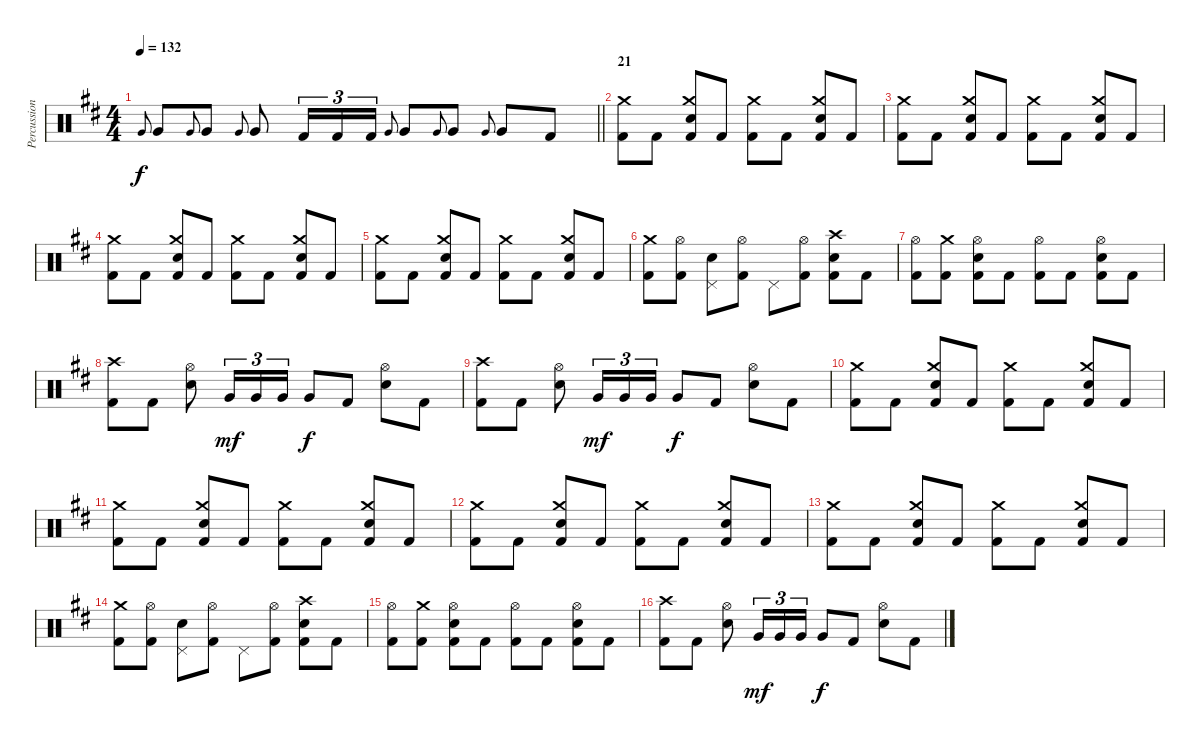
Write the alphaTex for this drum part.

\track ("Percussion" "Percussion") {instrument percussion}
\staff {score}
\articulation defaults
\ts (4 4)
\tempo 132
\clef neutral
\barLineRight lightlight
\ks bminor "Very Low Tom (hit)".8{gr onbeat dy f} "Very Low Tom (hit)".8 "Very Low Tom (hit)".8{gr onbeat} "Very Low Tom (hit)".8 "Very Low Tom (hit)".8{gr onbeat} "Very Low Tom (hit)".8 "Kick (hit) 2".16{tu (3 2)} "Kick (hit) 2".16{tu (3 2)} "Kick (hit) 2".16{tu (3 2)} "Very Low Tom (hit)".8{gr onbeat} "Very Low Tom (hit)".8 "Very Low Tom (hit)".8{gr onbeat} "Very Low Tom (hit)".8 "Very Low Tom (hit)".8{gr onbeat} "Very Low Tom (hit)".8 "Kick (hit) 2".8
|
\section ("" "21")
("Crash medium (hit)" "Kick (hit) 2").8 "Kick (hit) 2".8 ("Crash medium (hit)" "Snare (hit) 2" "Kick (hit) 2").8 "Kick (hit) 2".8 ("Crash medium (hit)" "Kick (hit) 2").8 "Kick (hit) 2".8 ("Crash medium (hit)" "Snare (hit) 2" "Kick (hit) 2").8 "Kick (hit) 2".8 |
("Crash medium (hit)" "Kick (hit) 2").8 "Kick (hit) 2".8 ("Crash medium (hit)" "Snare (hit) 2" "Kick (hit) 2").8 "Kick (hit) 2".8 ("Crash medium (hit)" "Kick (hit) 2").8 "Kick (hit) 2".8 ("Crash medium (hit)" "Snare (hit) 2" "Kick (hit) 2").8 "Kick (hit) 2".8 |
("Crash medium (hit)" "Kick (hit) 2").8 "Kick (hit) 2".8 ("Crash medium (hit)" "Snare (hit) 2" "Kick (hit) 2").8 "Kick (hit) 2".8 ("Crash medium (hit)" "Kick (hit) 2").8 "Kick (hit) 2".8 ("Crash medium (hit)" "Snare (hit) 2" "Kick (hit) 2").8 "Kick (hit) 2".8 |
("Crash medium (hit)" "Kick (hit) 2").8 "Kick (hit) 2".8 ("Crash medium (hit)" "Snare (hit) 2" "Kick (hit) 2").8 "Kick (hit) 2".8 ("Crash medium (hit)" "Kick (hit) 2").8 "Kick (hit) 2".8 ("Crash medium (hit)" "Snare (hit) 2" "Kick (hit) 2").8 "Kick (hit) 2".8 |
("Crash medium (hit)" "Kick (hit) 2").8 ("Hi-Hat (open)" "Kick (hit) 2").8 ("Pedal Hi-Hat (hit)" "Snare (hit) 2").8 ("Hi-Hat (open)" "Kick (hit) 2").8 "Pedal Hi-Hat (hit)".8 ("Hi-Hat (open)" "Kick (hit) 2").8 ("Crash high (hit)" "Snare (hit) 2" "Kick (hit) 2").8 "Kick (hit) 2".8 |
("Hi-Hat (open)" "Kick (hit) 2").8 ("Crash medium (hit)" "Kick (hit) 2").8 ("Hi-Hat (open)" "Snare (hit) 2" "Kick (hit) 2").8 "Kick (hit) 2".8 ("Hi-Hat (open)" "Kick (hit) 2").8 "Kick (hit) 2".8 ("Hi-Hat (open)" "Snare (hit) 2" "Kick (hit) 2").8 "Kick (hit) 2".8 |
("Crash high (hit)" "Kick (hit) 2").8 "Kick (hit) 2".8 ("Hi-Hat (open)" "Snare (hit) 2").8 "Very Low Tom (hit)".16{tu (3 2) dy mf} "Very Low Tom (hit)".16{tu (3 2)} "Very Low Tom (hit)".16{tu (3 2)} "Very Low Tom (hit)".8{dy f} "Kick (hit) 2".8 ("Hi-Hat (open)" "Snare (hit) 2").8 "Kick (hit) 2".8 |
("Crash high (hit)" "Kick (hit) 2").8 "Kick (hit) 2".8 ("Hi-Hat (open)" "Snare (hit) 2").8 "Very Low Tom (hit)".16{tu (3 2) dy mf} "Very Low Tom (hit)".16{tu (3 2)} "Very Low Tom (hit)".16{tu (3 2)} "Very Low Tom (hit)".8{dy f} "Kick (hit) 2".8 ("Hi-Hat (open)" "Snare (hit) 2").8 "Kick (hit) 2".8 |
("Crash medium (hit)" "Kick (hit) 2").8 "Kick (hit) 2".8 ("Crash medium (hit)" "Snare (hit) 2" "Kick (hit) 2").8 "Kick (hit) 2".8 ("Crash medium (hit)" "Kick (hit) 2").8 "Kick (hit) 2".8 ("Crash medium (hit)" "Snare (hit) 2" "Kick (hit) 2").8 "Kick (hit) 2".8 |
("Crash medium (hit)" "Kick (hit) 2").8 "Kick (hit) 2".8 ("Crash medium (hit)" "Snare (hit) 2" "Kick (hit) 2").8 "Kick (hit) 2".8 ("Crash medium (hit)" "Kick (hit) 2").8 "Kick (hit) 2".8 ("Crash medium (hit)" "Snare (hit) 2" "Kick (hit) 2").8 "Kick (hit) 2".8 |
("Crash medium (hit)" "Kick (hit) 2").8 "Kick (hit) 2".8 ("Crash medium (hit)" "Snare (hit) 2" "Kick (hit) 2").8 "Kick (hit) 2".8 ("Crash medium (hit)" "Kick (hit) 2").8 "Kick (hit) 2".8 ("Crash medium (hit)" "Snare (hit) 2" "Kick (hit) 2").8 "Kick (hit) 2".8 |
("Crash medium (hit)" "Kick (hit) 2").8 "Kick (hit) 2".8 ("Crash medium (hit)" "Snare (hit) 2" "Kick (hit) 2").8 "Kick (hit) 2".8 ("Crash medium (hit)" "Kick (hit) 2").8 "Kick (hit) 2".8 ("Crash medium (hit)" "Snare (hit) 2" "Kick (hit) 2").8 "Kick (hit) 2".8 |
("Crash medium (hit)" "Kick (hit) 2").8 ("Hi-Hat (open)" "Kick (hit) 2").8 ("Pedal Hi-Hat (hit)" "Snare (hit) 2").8 ("Hi-Hat (open)" "Kick (hit) 2").8 "Pedal Hi-Hat (hit)".8 ("Hi-Hat (open)" "Kick (hit) 2").8 ("Crash high (hit)" "Snare (hit) 2" "Kick (hit) 2").8 "Kick (hit) 2".8 |
("Hi-Hat (open)" "Kick (hit) 2").8 ("Crash medium (hit)" "Kick (hit) 2").8 ("Hi-Hat (open)" "Snare (hit) 2" "Kick (hit) 2").8 "Kick (hit) 2".8 ("Hi-Hat (open)" "Kick (hit) 2").8 "Kick (hit) 2".8 ("Hi-Hat (open)" "Snare (hit) 2" "Kick (hit) 2").8 "Kick (hit) 2".8 |
("Crash high (hit)" "Kick (hit) 2").8 "Kick (hit) 2".8 ("Hi-Hat (open)" "Snare (hit) 2").8 "Very Low Tom (hit)".16{tu (3 2) dy mf} "Very Low Tom (hit)".16{tu (3 2)} "Very Low Tom (hit)".16{tu (3 2)} "Very Low Tom (hit)".8{dy f} "Kick (hit) 2".8 ("Hi-Hat (open)" "Snare (hit) 2").8 "Kick (hit) 2".8
